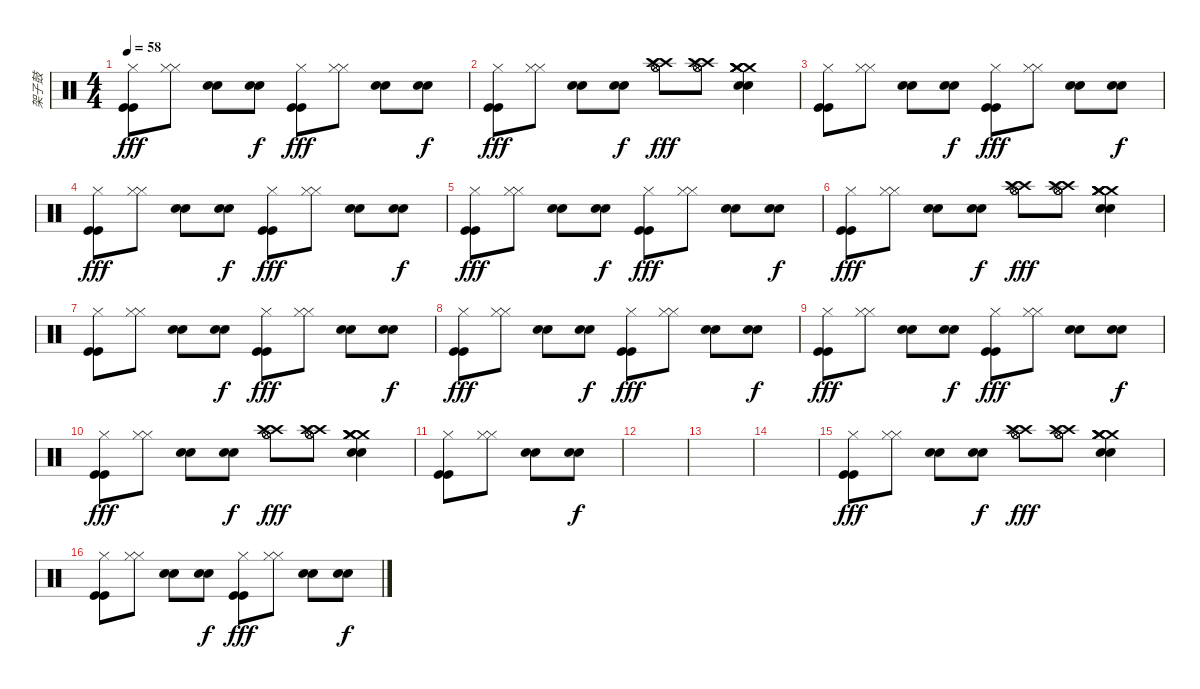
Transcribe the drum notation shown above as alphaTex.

\track ("架子鼓" "架子鼓") {instrument percussion}
\staff {score}
\articulation defaults
\ts (4 4)
\tempo 58
\clef neutral
\ks c
("Kick (hit)" "Kick (hit)" "Hi-Hat (closed)").8{dy fff} ("Hi-Hat (closed)" "Hi-Hat (closed)").8 ("Snare (hit) 2" "Snare (hit) 2").8 ("Snare (hit) 2" "Snare (hit) 2").8{dy f} ("Kick (hit)" "Kick (hit)" "Hi-Hat (closed)").8{dy fff} ("Hi-Hat (closed)" "Hi-Hat (closed)").8 ("Snare (hit) 2" "Snare (hit) 2").8 ("Snare (hit) 2" "Snare (hit) 2").8{dy f} |
("Kick (hit)" "Kick (hit)" "Hi-Hat (closed)").8{dy fff} ("Hi-Hat (closed)" "Hi-Hat (closed)").8 ("Snare (hit) 2" "Snare (hit) 2").8 ("Snare (hit) 2" "Snare (hit) 2").8{dy f} ("Crash high (hit)" "Splash (hit)" "Hi-Hat (open)" "Hi-Hat (open)" "Hi-Hat (open)" "Crash high (hit)").8{dy fff} ("Crash high (hit)" "Splash (hit)" "Hi-Hat (open)" "Hi-Hat (open)" "Hi-Hat (open)" "Crash high (hit)").8 ("Crash medium (hit)" "Crash medium (hit)" "Snare (hit) 2" "Snare (hit) 2" "Crash medium (hit)" "Crash medium (hit)").4 |
("Kick (hit)" "Kick (hit)" "Hi-Hat (closed)").8 ("Hi-Hat (closed)" "Hi-Hat (closed)").8 ("Snare (hit) 2" "Snare (hit) 2").8 ("Snare (hit) 2" "Snare (hit) 2").8{dy f} ("Kick (hit)" "Kick (hit)" "Hi-Hat (closed)").8{dy fff} ("Hi-Hat (closed)" "Hi-Hat (closed)").8 ("Snare (hit) 2" "Snare (hit) 2").8 ("Snare (hit) 2" "Snare (hit) 2").8{dy f} |
("Kick (hit)" "Kick (hit)" "Hi-Hat (closed)").8{dy fff} ("Hi-Hat (closed)" "Hi-Hat (closed)").8 ("Snare (hit) 2" "Snare (hit) 2").8 ("Snare (hit) 2" "Snare (hit) 2").8{dy f} ("Kick (hit)" "Kick (hit)" "Hi-Hat (closed)").8{dy fff} ("Hi-Hat (closed)" "Hi-Hat (closed)").8 ("Snare (hit) 2" "Snare (hit) 2").8 ("Snare (hit) 2" "Snare (hit) 2").8{dy f} |
("Kick (hit)" "Kick (hit)" "Hi-Hat (closed)").8{dy fff} ("Hi-Hat (closed)" "Hi-Hat (closed)").8 ("Snare (hit) 2" "Snare (hit) 2").8 ("Snare (hit) 2" "Snare (hit) 2").8{dy f} ("Kick (hit)" "Kick (hit)" "Hi-Hat (closed)").8{dy fff} ("Hi-Hat (closed)" "Hi-Hat (closed)").8 ("Snare (hit) 2" "Snare (hit) 2").8 ("Snare (hit) 2" "Snare (hit) 2").8{dy f} |
("Kick (hit)" "Kick (hit)" "Hi-Hat (closed)").8{dy fff} ("Hi-Hat (closed)" "Hi-Hat (closed)").8 ("Snare (hit) 2" "Snare (hit) 2").8 ("Snare (hit) 2" "Snare (hit) 2").8{dy f} ("Crash high (hit)" "Splash (hit)" "Hi-Hat (open)" "Hi-Hat (open)" "Hi-Hat (open)" "Crash high (hit)").8{dy fff} ("Crash high (hit)" "Splash (hit)" "Hi-Hat (open)" "Hi-Hat (open)" "Hi-Hat (open)" "Crash high (hit)").8 ("Crash medium (hit)" "Crash medium (hit)" "Snare (hit) 2" "Snare (hit) 2" "Crash medium (hit)" "Crash medium (hit)").4 |
("Kick (hit)" "Kick (hit)" "Hi-Hat (closed)").8 ("Hi-Hat (closed)" "Hi-Hat (closed)").8 ("Snare (hit) 2" "Snare (hit) 2").8 ("Snare (hit) 2" "Snare (hit) 2").8{dy f} ("Kick (hit)" "Kick (hit)" "Hi-Hat (closed)").8{dy fff} ("Hi-Hat (closed)" "Hi-Hat (closed)").8 ("Snare (hit) 2" "Snare (hit) 2").8 ("Snare (hit) 2" "Snare (hit) 2").8{dy f} |
("Kick (hit)" "Kick (hit)" "Hi-Hat (closed)").8{dy fff} ("Hi-Hat (closed)" "Hi-Hat (closed)").8 ("Snare (hit) 2" "Snare (hit) 2").8 ("Snare (hit) 2" "Snare (hit) 2").8{dy f} ("Kick (hit)" "Kick (hit)" "Hi-Hat (closed)").8{dy fff} ("Hi-Hat (closed)" "Hi-Hat (closed)").8 ("Snare (hit) 2" "Snare (hit) 2").8 ("Snare (hit) 2" "Snare (hit) 2").8{dy f} |
("Kick (hit)" "Kick (hit)" "Hi-Hat (closed)").8{dy fff} ("Hi-Hat (closed)" "Hi-Hat (closed)").8 ("Snare (hit) 2" "Snare (hit) 2").8 ("Snare (hit) 2" "Snare (hit) 2").8{dy f} ("Kick (hit)" "Kick (hit)" "Hi-Hat (closed)").8{dy fff} ("Hi-Hat (closed)" "Hi-Hat (closed)").8 ("Snare (hit) 2" "Snare (hit) 2").8 ("Snare (hit) 2" "Snare (hit) 2").8{dy f} |
("Kick (hit)" "Kick (hit)" "Hi-Hat (closed)").8{dy fff} ("Hi-Hat (closed)" "Hi-Hat (closed)").8 ("Snare (hit) 2" "Snare (hit) 2").8 ("Snare (hit) 2" "Snare (hit) 2").8{dy f} ("Crash high (hit)" "Splash (hit)" "Hi-Hat (open)" "Hi-Hat (open)" "Hi-Hat (open)" "Crash high (hit)").8{dy fff} ("Crash high (hit)" "Splash (hit)" "Hi-Hat (open)" "Hi-Hat (open)" "Hi-Hat (open)" "Crash high (hit)").8 ("Crash medium (hit)" "Crash medium (hit)" "Snare (hit) 2" "Snare (hit) 2" "Crash medium (hit)" "Crash medium (hit)").4 |
("Kick (hit)" "Kick (hit)" "Hi-Hat (closed)").8 ("Hi-Hat (closed)" "Hi-Hat (closed)").8 ("Snare (hit) 2" "Snare (hit) 2").8 ("Snare (hit) 2" "Snare (hit) 2").8{dy f} |
|
|
|
("Kick (hit)" "Kick (hit)" "Hi-Hat (closed)").8{dy fff} ("Hi-Hat (closed)" "Hi-Hat (closed)").8 ("Snare (hit) 2" "Snare (hit) 2").8 ("Snare (hit) 2" "Snare (hit) 2").8{dy f} ("Crash high (hit)" "Splash (hit)" "Hi-Hat (open)" "Hi-Hat (open)" "Hi-Hat (open)" "Crash high (hit)").8{dy fff} ("Crash high (hit)" "Splash (hit)" "Hi-Hat (open)" "Hi-Hat (open)" "Hi-Hat (open)" "Crash high (hit)").8 ("Crash medium (hit)" "Crash medium (hit)" "Snare (hit) 2" "Snare (hit) 2" "Crash medium (hit)" "Crash medium (hit)").4 |
("Kick (hit)" "Kick (hit)" "Hi-Hat (closed)").8 ("Hi-Hat (closed)" "Hi-Hat (closed)").8 ("Snare (hit) 2" "Snare (hit) 2").8 ("Snare (hit) 2" "Snare (hit) 2").8{dy f} ("Kick (hit)" "Kick (hit)" "Hi-Hat (closed)").8{dy fff} ("Hi-Hat (closed)" "Hi-Hat (closed)").8 ("Snare (hit) 2" "Snare (hit) 2").8 ("Snare (hit) 2" "Snare (hit) 2").8{dy f}
